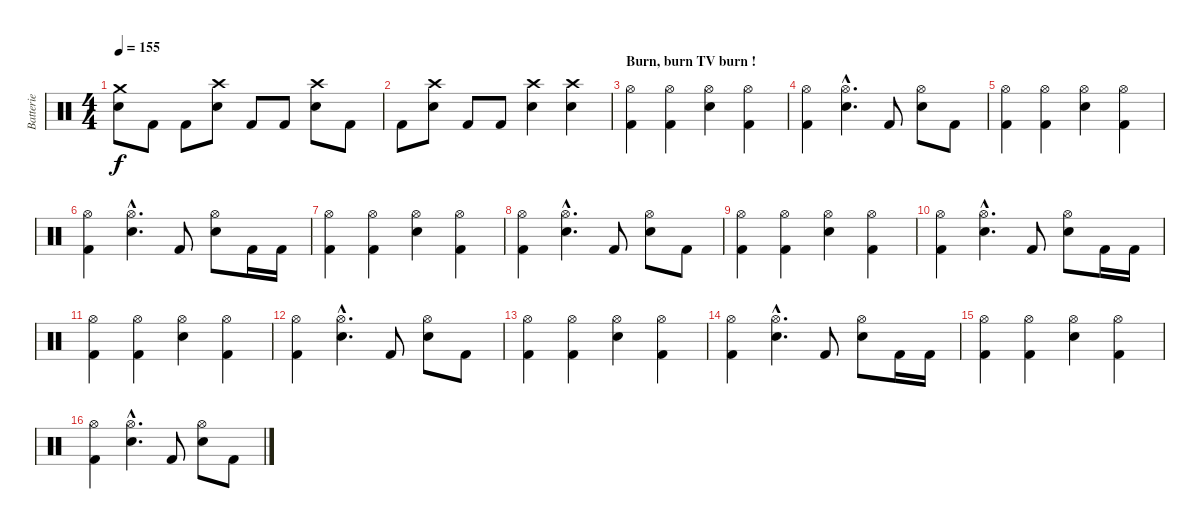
\track ("Batterie" "Batterie") {instrument percussion}
\staff {score}
\articulation defaults
\ts (4 4)
\tempo 155
\clef neutral
\ks c
("Crash medium (hit)" "Electric Snare (hit)").8{dy f} "Kick (hit) 2".8 "Kick (hit) 2".8 ("Crash high (hit)" "Electric Snare (hit)").8 "Kick (hit) 2".8 "Kick (hit) 2".8 ("Crash high (hit)" "Electric Snare (hit)").8 "Kick (hit) 2".8 |
"Kick (hit) 2".8 ("Crash high (hit)" "Electric Snare (hit)").8 "Kick (hit) 2".8 "Kick (hit) 2".8 ("Crash high (hit)" "Electric Snare (hit)").4 ("Crash high (hit)" "Electric Snare (hit)").4 |
\section ("" "Burn, burn TV burn !")
("Hi-Hat (open)" "Kick (hit) 2").4 ("Hi-Hat (open)" "Kick (hit) 2").4 ("Hi-Hat (open)" "Electric Snare (hit)").4 ("Hi-Hat (open)" "Kick (hit) 2").4 |
("Hi-Hat (open)" "Kick (hit) 2").4 ("Hi-Hat (open)"{hac} "Electric Snare (hit)"{hac}).4{d} "Kick (hit) 2".8 ("Hi-Hat (open)" "Electric Snare (hit)").8 "Kick (hit) 2".8 |
("Hi-Hat (open)" "Kick (hit) 2").4 ("Hi-Hat (open)" "Kick (hit) 2").4 ("Hi-Hat (open)" "Electric Snare (hit)").4 ("Hi-Hat (open)" "Kick (hit) 2").4 |
("Hi-Hat (open)" "Kick (hit) 2").4 ("Hi-Hat (open)"{hac} "Electric Snare (hit)"{hac}).4{d} "Kick (hit) 2".8 ("Hi-Hat (open)" "Electric Snare (hit)").8 "Kick (hit) 2".16 "Kick (hit) 2".16 |
("Hi-Hat (open)" "Kick (hit) 2").4 ("Hi-Hat (open)" "Kick (hit) 2").4 ("Hi-Hat (open)" "Electric Snare (hit)").4 ("Hi-Hat (open)" "Kick (hit) 2").4 |
("Hi-Hat (open)" "Kick (hit) 2").4 ("Hi-Hat (open)"{hac} "Electric Snare (hit)"{hac}).4{d} "Kick (hit) 2".8 ("Hi-Hat (open)" "Electric Snare (hit)").8 "Kick (hit) 2".8 |
("Hi-Hat (open)" "Kick (hit) 2").4 ("Hi-Hat (open)" "Kick (hit) 2").4 ("Hi-Hat (open)" "Electric Snare (hit)").4 ("Hi-Hat (open)" "Kick (hit) 2").4 |
("Hi-Hat (open)" "Kick (hit) 2").4 ("Hi-Hat (open)"{hac} "Electric Snare (hit)"{hac}).4{d} "Kick (hit) 2".8 ("Hi-Hat (open)" "Electric Snare (hit)").8 "Kick (hit) 2".16 "Kick (hit) 2".16 |
("Hi-Hat (open)" "Kick (hit) 2").4 ("Hi-Hat (open)" "Kick (hit) 2").4 ("Hi-Hat (open)" "Electric Snare (hit)").4 ("Hi-Hat (open)" "Kick (hit) 2").4 |
("Hi-Hat (open)" "Kick (hit) 2").4 ("Hi-Hat (open)"{hac} "Electric Snare (hit)"{hac}).4{d} "Kick (hit) 2".8 ("Hi-Hat (open)" "Electric Snare (hit)").8 "Kick (hit) 2".8 |
("Hi-Hat (open)" "Kick (hit) 2").4 ("Hi-Hat (open)" "Kick (hit) 2").4 ("Hi-Hat (open)" "Electric Snare (hit)").4 ("Hi-Hat (open)" "Kick (hit) 2").4 |
("Hi-Hat (open)" "Kick (hit) 2").4 ("Hi-Hat (open)"{hac} "Electric Snare (hit)"{hac}).4{d} "Kick (hit) 2".8 ("Hi-Hat (open)" "Electric Snare (hit)").8 "Kick (hit) 2".16 "Kick (hit) 2".16 |
("Hi-Hat (open)" "Kick (hit) 2").4 ("Hi-Hat (open)" "Kick (hit) 2").4 ("Hi-Hat (open)" "Electric Snare (hit)").4 ("Hi-Hat (open)" "Kick (hit) 2").4 |
("Hi-Hat (open)" "Kick (hit) 2").4 ("Hi-Hat (open)"{hac} "Electric Snare (hit)"{hac}).4{d} "Kick (hit) 2".8 ("Hi-Hat (open)" "Electric Snare (hit)").8 "Kick (hit) 2".8
